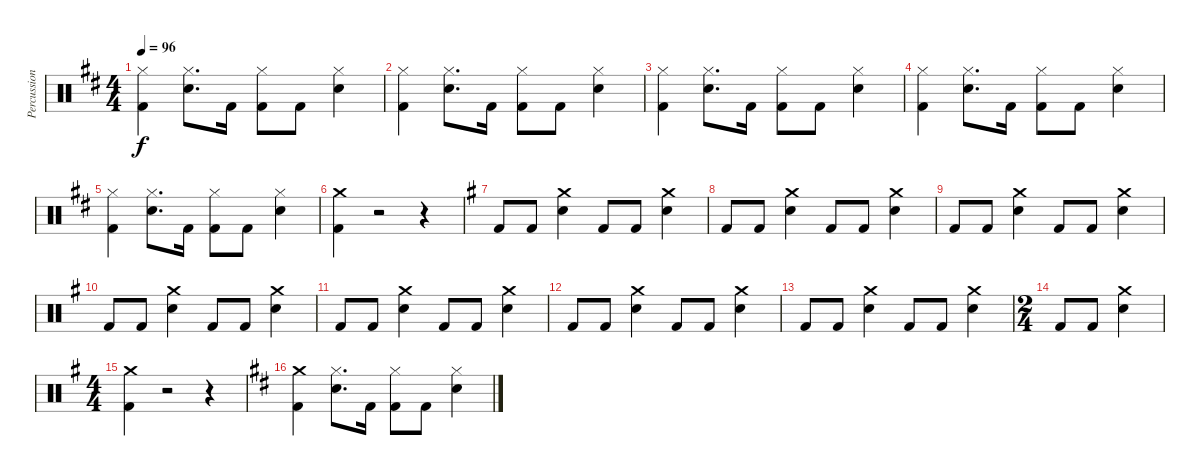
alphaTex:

\track ("Percussion" "Percussion") {instrument percussion}
\staff {score}
\articulation defaults
\ts (4 4)
\tempo 96
\clef neutral
\ks d
("Hi-Hat (closed)" "Kick (hit) 2").4{dy f} ("Hi-Hat (closed)" "Snare (hit) 2").8{d} "Kick (hit) 2".16 ("Hi-Hat (closed)" "Kick (hit) 2").8 "Kick (hit) 2".8 ("Hi-Hat (closed)" "Snare (hit) 2").4 |
("Hi-Hat (closed)" "Kick (hit) 2").4 ("Hi-Hat (closed)" "Snare (hit) 2").8{d} "Kick (hit) 2".16 ("Hi-Hat (closed)" "Kick (hit) 2").8 "Kick (hit) 2".8 ("Hi-Hat (closed)" "Snare (hit) 2").4 |
("Hi-Hat (closed)" "Kick (hit) 2").4 ("Hi-Hat (closed)" "Snare (hit) 2").8{d} "Kick (hit) 2".16 ("Hi-Hat (closed)" "Kick (hit) 2").8 "Kick (hit) 2".8 ("Hi-Hat (closed)" "Snare (hit) 2").4 |
("Hi-Hat (closed)" "Kick (hit) 2").4 ("Hi-Hat (closed)" "Snare (hit) 2").8{d} "Kick (hit) 2".16 ("Hi-Hat (closed)" "Kick (hit) 2").8 "Kick (hit) 2".8 ("Hi-Hat (closed)" "Snare (hit) 2").4 |
("Hi-Hat (closed)" "Kick (hit) 2").4 ("Hi-Hat (closed)" "Snare (hit) 2").8{d} "Kick (hit) 2".16 ("Hi-Hat (closed)" "Kick (hit) 2").8 "Kick (hit) 2".8 ("Hi-Hat (closed)" "Snare (hit) 2").4 |
("Crash medium (hit)" "Kick (hit) 2").4 r.2 r.4 |
\ks g "Kick (hit) 2".8 "Kick (hit) 2".8
("Crash medium (hit)" "Snare (hit) 2").4 "Kick (hit) 2".8 "Kick (hit) 2".8 ("Crash medium (hit)" "Snare (hit) 2").4 |
"Kick (hit) 2".8 "Kick (hit) 2".8 ("Crash medium (hit)" "Snare (hit) 2").4 "Kick (hit) 2".8 "Kick (hit) 2".8 ("Crash medium (hit)" "Snare (hit) 2").4 |
"Kick (hit) 2".8 "Kick (hit) 2".8 ("Crash medium (hit)" "Snare (hit) 2").4 "Kick (hit) 2".8 "Kick (hit) 2".8 ("Crash medium (hit)" "Snare (hit) 2").4 |
"Kick (hit) 2".8 "Kick (hit) 2".8 ("Crash medium (hit)" "Snare (hit) 2").4 "Kick (hit) 2".8 "Kick (hit) 2".8 ("Crash medium (hit)" "Snare (hit) 2").4 |
"Kick (hit) 2".8 "Kick (hit) 2".8 ("Crash medium (hit)" "Snare (hit) 2").4 "Kick (hit) 2".8 "Kick (hit) 2".8 ("Crash medium (hit)" "Snare (hit) 2").4 |
"Kick (hit) 2".8 "Kick (hit) 2".8 ("Crash medium (hit)" "Snare (hit) 2").4 "Kick (hit) 2".8 "Kick (hit) 2".8 ("Crash medium (hit)" "Snare (hit) 2").4 |
"Kick (hit) 2".8 "Kick (hit) 2".8 ("Crash medium (hit)" "Snare (hit) 2").4 "Kick (hit) 2".8 "Kick (hit) 2".8 ("Crash medium (hit)" "Snare (hit) 2").4 |
\ts (2 4)
"Kick (hit) 2".8 "Kick (hit) 2".8 ("Crash medium (hit)" "Snare (hit) 2").4 |
\ts (4 4)
("Crash medium (hit)" "Kick (hit) 2").4 r.2 r.4 |
\ks d
("Crash medium (hit)" "Kick (hit) 2").4 ("Hi-Hat (closed)" "Snare (hit) 2").8{d} "Kick (hit) 2".16 ("Hi-Hat (closed)" "Kick (hit) 2").8 "Kick (hit) 2".8 ("Hi-Hat (closed)" "Snare (hit) 2").4
